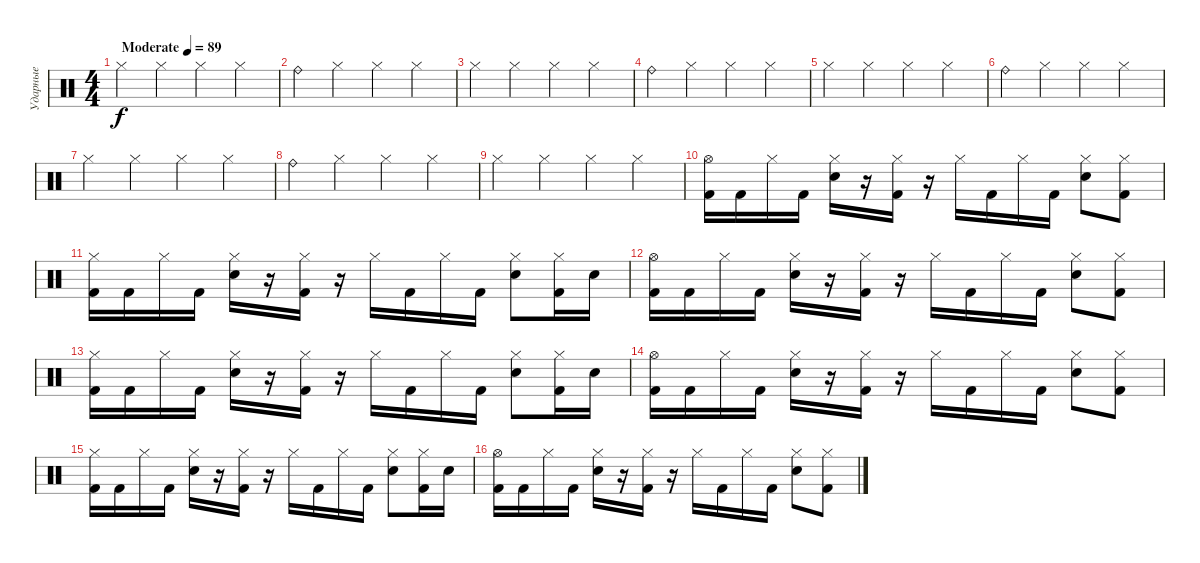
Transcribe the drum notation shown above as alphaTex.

\track ("Ударные" "Ударные") {instrument percussion}
\staff {score}
\articulation defaults
\ts (4 4)
\tempo (89 "Moderate")
\clef neutral
\ks c "Hi-Hat (closed)".4{dy f} "Hi-Hat (closed)".4 "Hi-Hat (closed)".4 "Hi-Hat (closed)".4
|
"Ride (bell)".4 "Hi-Hat (closed)".4 "Hi-Hat (closed)".4 "Hi-Hat (closed)".4 |
"Hi-Hat (closed)".4 "Hi-Hat (closed)".4 "Hi-Hat (closed)".4 "Hi-Hat (closed)".4 |
"Ride (bell)".4 "Hi-Hat (closed)".4 "Hi-Hat (closed)".4 "Hi-Hat (closed)".4 |
"Hi-Hat (closed)".4 "Hi-Hat (closed)".4 "Hi-Hat (closed)".4 "Hi-Hat (closed)".4 |
"Ride (bell)".4 "Hi-Hat (closed)".4 "Hi-Hat (closed)".4 "Hi-Hat (closed)".4 |
"Hi-Hat (closed)".4 "Hi-Hat (closed)".4 "Hi-Hat (closed)".4 "Hi-Hat (closed)".4 |
"Ride (bell)".4 "Hi-Hat (closed)".4 "Hi-Hat (closed)".4 "Hi-Hat (closed)".4 |
"Hi-Hat (closed)".4 "Hi-Hat (closed)".4 "Hi-Hat (closed)".4 "Hi-Hat (closed)".4 |
("Hi-Hat (open)" "Kick (hit) 2").16 "Kick (hit) 2".16 "Hi-Hat (closed)".16 "Kick (hit) 2".16 ("Hi-Hat (closed)" "Electric Snare (hit)").16 r.16 ("Hi-Hat (closed)" "Kick (hit) 2").16 r.16 "Hi-Hat (closed)".16 "Kick (hit) 2".16 "Hi-Hat (closed)".16 "Kick (hit) 2".16 ("Hi-Hat (closed)" "Electric Snare (hit)").8 ("Hi-Hat (closed)" "Kick (hit) 2").8 |
("Hi-Hat (closed)" "Kick (hit) 2").16 "Kick (hit) 2".16 "Hi-Hat (closed)".16 "Kick (hit) 2".16 ("Hi-Hat (closed)" "Electric Snare (hit)").16 r.16 ("Hi-Hat (closed)" "Kick (hit) 2").16 r.16 "Hi-Hat (closed)".16 "Kick (hit) 2".16 "Hi-Hat (closed)".16 "Kick (hit) 2".16 ("Hi-Hat (closed)" "Electric Snare (hit)").8 ("Hi-Hat (closed)" "Kick (hit) 2").16 "Electric Snare (hit)".16 |
("Hi-Hat (open)" "Kick (hit) 2").16 "Kick (hit) 2".16 "Hi-Hat (closed)".16 "Kick (hit) 2".16 ("Hi-Hat (closed)" "Electric Snare (hit)").16 r.16 ("Hi-Hat (closed)" "Kick (hit) 2").16 r.16 "Hi-Hat (closed)".16 "Kick (hit) 2".16 "Hi-Hat (closed)".16 "Kick (hit) 2".16 ("Hi-Hat (closed)" "Electric Snare (hit)").8 ("Hi-Hat (closed)" "Kick (hit) 2").8 |
("Hi-Hat (closed)" "Kick (hit) 2").16 "Kick (hit) 2".16 "Hi-Hat (closed)".16 "Kick (hit) 2".16 ("Hi-Hat (closed)" "Electric Snare (hit)").16 r.16 ("Hi-Hat (closed)" "Kick (hit) 2").16 r.16 "Hi-Hat (closed)".16 "Kick (hit) 2".16 "Hi-Hat (closed)".16 "Kick (hit) 2".16 ("Hi-Hat (closed)" "Electric Snare (hit)").8 ("Hi-Hat (closed)" "Kick (hit) 2").16 "Electric Snare (hit)".16 |
("Hi-Hat (open)" "Kick (hit) 2").16 "Kick (hit) 2".16 "Hi-Hat (closed)".16 "Kick (hit) 2".16 ("Hi-Hat (closed)" "Electric Snare (hit)").16 r.16 ("Hi-Hat (closed)" "Kick (hit) 2").16 r.16 "Hi-Hat (closed)".16 "Kick (hit) 2".16 "Hi-Hat (closed)".16 "Kick (hit) 2".16 ("Hi-Hat (closed)" "Electric Snare (hit)").8 ("Hi-Hat (closed)" "Kick (hit) 2").8 |
("Hi-Hat (closed)" "Kick (hit) 2").16 "Kick (hit) 2".16 "Hi-Hat (closed)".16 "Kick (hit) 2".16 ("Hi-Hat (closed)" "Electric Snare (hit)").16 r.16 ("Hi-Hat (closed)" "Kick (hit) 2").16 r.16 "Hi-Hat (closed)".16 "Kick (hit) 2".16 "Hi-Hat (closed)".16 "Kick (hit) 2".16 ("Hi-Hat (closed)" "Electric Snare (hit)").8 ("Hi-Hat (closed)" "Kick (hit) 2").16 "Electric Snare (hit)".16 |
("Hi-Hat (open)" "Kick (hit) 2").16 "Kick (hit) 2".16 "Hi-Hat (closed)".16 "Kick (hit) 2".16 ("Hi-Hat (closed)" "Electric Snare (hit)").16 r.16 ("Hi-Hat (closed)" "Kick (hit) 2").16 r.16 "Hi-Hat (closed)".16 "Kick (hit) 2".16 "Hi-Hat (closed)".16 "Kick (hit) 2".16 ("Hi-Hat (closed)" "Electric Snare (hit)").8 ("Hi-Hat (closed)" "Kick (hit) 2").8
